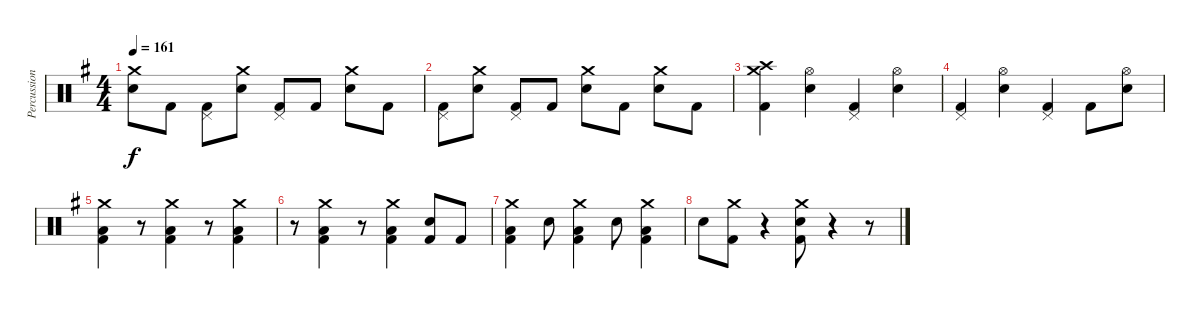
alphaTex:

\track ("Percussion" "Percussion") {instrument percussion}
\staff {score}
\articulation defaults
\ts (4 4)
\tempo 161
\clef neutral
\ks g
("Crash medium (hit)" "Electric Snare (hit)").8{dy f} "Kick (hit) 2".8 ("Pedal Hi-Hat (hit)" "Kick (hit) 2").8 ("Crash medium (hit)" "Electric Snare (hit)").8 ("Pedal Hi-Hat (hit)" "Kick (hit) 2").8 "Kick (hit) 2".8 ("Crash medium (hit)" "Electric Snare (hit)").8 "Kick (hit) 2".8 |
("Pedal Hi-Hat (hit)" "Kick (hit) 2").8 ("Crash medium (hit)" "Electric Snare (hit)").8 ("Pedal Hi-Hat (hit)" "Kick (hit) 2").8 "Kick (hit) 2".8 ("Crash medium (hit)" "Electric Snare (hit)").8 "Kick (hit) 2".8 ("Crash medium (hit)" "Electric Snare (hit)").8 "Kick (hit) 2".8 |
("Crash high (hit)" "Crash medium (hit)" "Kick (hit) 2").4 ("Hi-Hat (open)" "Electric Snare (hit)").4 ("Pedal Hi-Hat (hit)" "Kick (hit) 2").4 ("Hi-Hat (open)" "Electric Snare (hit)").4 |
("Pedal Hi-Hat (hit)" "Kick (hit) 2").4 ("Hi-Hat (open)" "Electric Snare (hit)").4 ("Pedal Hi-Hat (hit)" "Kick (hit) 2").4 "Kick (hit) 2".8 ("Hi-Hat (open)" "Electric Snare (hit)").8 |
("Crash medium (hit)" "Low Floor Tom (hit)" "Kick (hit) 2").4 r.8 ("Crash medium (hit)" "Low Floor Tom (hit)" "Kick (hit) 2").4 r.8 ("Crash medium (hit)" "Low Floor Tom (hit)" "Kick (hit) 2").4 |
r.8 ("Crash medium (hit)" "Low Floor Tom (hit)" "Kick (hit) 2").4 r.8 ("Crash medium (hit)" "Low Floor Tom (hit)" "Kick (hit) 2").4 ("Electric Snare (hit)" "Kick (hit) 2").8 "Kick (hit) 2".8 |
("Crash medium (hit)" "Low Floor Tom (hit)" "Kick (hit) 2").4 "Electric Snare (hit)".8 ("Crash medium (hit)" "Low Floor Tom (hit)" "Kick (hit) 2").4 "Electric Snare (hit)".8 ("Crash medium (hit)" "Low Floor Tom (hit)" "Kick (hit) 2").4 |
"Electric Snare (hit)".8 ("Crash medium (hit)" "Kick (hit) 2").8 r.4 ("Crash medium (hit)" "Electric Snare (hit)" "Kick (hit) 2").8 r.4 r.8
